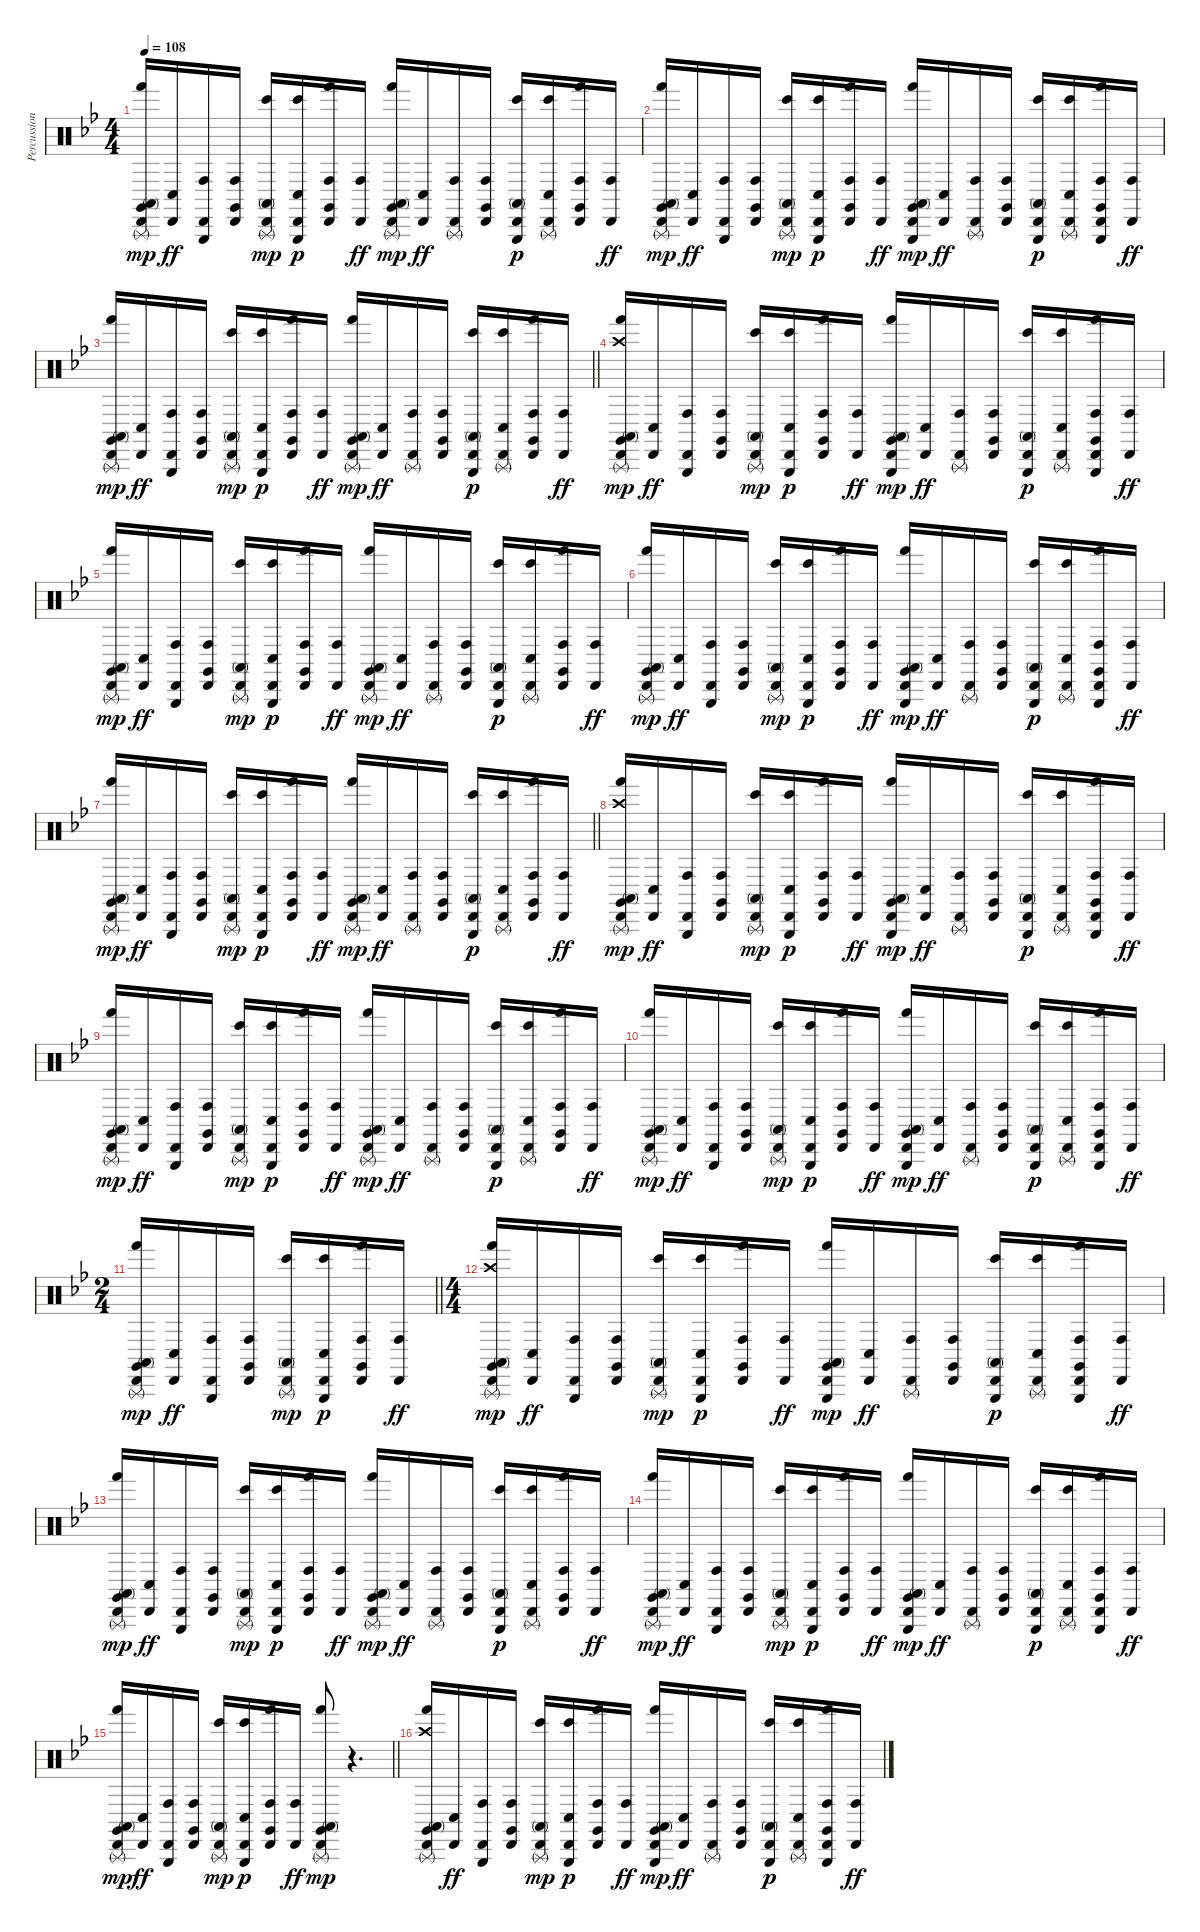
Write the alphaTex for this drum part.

\track ("Percussion" "Percussion") {instrument percussion}
\staff {score}
\articulation defaults
\ts (4 4)
\tempo 108
\clef neutral
\ks gminor
("Cabasa (hit)" "Triangle (rnute)" "Claves (hit)" "Conga high (mute)" "Hand (hit)").16{dy mp} ("Cabasa (hit)" "Conga low (hit)").16{dy ff} ("Cabasa (hit)" "Triangle (hit)" "Conga high (hit)").16 ("Cabasa (hit)" "Claves (hit)" "Conga high (hit)").16 ("Cabasa (hit)" "Triangle (rnute)" "Conga high (mute)" "Bongo High (hit)").16{dy mp} ("Cabasa (hit)" "Triangle (hit)" "Conga low (hit)" "Bongo High (hit)").16{dy p} ("Cabasa (hit)" "Claves (hit)" "Conga high (hit)" "Hand (hit)").16 ("Cabasa (hit)" "Conga high (hit)").16{dy ff} ("Cabasa (hit)" "Triangle (rnute)" "Claves (hit)" "Conga high (mute)" "Hand (hit)").16{dy mp} ("Cabasa (hit)" "Conga low (hit)").16{dy ff} ("Cabasa (hit)" "Triangle (rnute)" "Conga high (hit)").16 ("Cabasa (hit)" "Claves (hit)" "Conga high (hit)").16 ("Cabasa (hit)" "Triangle (hit)" "Conga high (mute)" "Bongo High (hit)").16{dy p} ("Cabasa (hit)" "Triangle (rnute)" "Conga low (hit)" "Bongo High (hit)").16 ("Cabasa (hit)" "Claves (hit)" "Conga high (hit)" "Hand (hit)").16 ("Cabasa (hit)" "Conga high (hit)").16{dy ff} |
("Cabasa (hit)" "Claves (hit)" "Triangle (rnute)" "Conga high (mute)" "Hand (hit)").16{dy mp} ("Cabasa (hit)" "Conga low (hit)").16{dy ff} ("Cabasa (hit)" "Triangle (hit)" "Conga high (hit)").16 ("Cabasa (hit)" "Claves (hit)" "Conga high (hit)").16 ("Cabasa (hit)" "Triangle (rnute)" "Conga high (mute)" "Bongo High (hit)").16{dy mp} ("Cabasa (hit)" "Triangle (hit)" "Conga low (hit)" "Bongo High (hit)").16{dy p} ("Cabasa (hit)" "Claves (hit)" "Conga high (hit)" "Hand (hit)").16 ("Cabasa (hit)" "Conga high (hit)").16{dy ff} ("Cabasa (hit)" "Claves (hit)" "Triangle (hit)" "Conga high (mute)" "Hand (hit)").16{dy mp} ("Cabasa (hit)" "Conga low (hit)").16{dy ff} ("Cabasa (hit)" "Triangle (rnute)" "Conga high (hit)").16 ("Cabasa (hit)" "Claves (hit)" "Conga high (hit)").16 ("Cabasa (hit)" "Triangle (hit)" "Conga high (mute)" "Bongo High (hit)").16{dy p} ("Cabasa (hit)" "Triangle (rnute)" "Conga low (hit)" "Bongo High (hit)").16 ("Cabasa (hit)" "Claves (hit)" "Triangle (hit)" "Conga high (hit)" "Hand (hit)").16 ("Cabasa (hit)" "Conga high (hit)").16{dy ff} |
\barLineRight lightlight
("Cabasa (hit)" "Triangle (rnute)" "Claves (hit)" "Conga high (mute)" "Hand (hit)").16{dy mp} ("Cabasa (hit)" "Conga low (hit)").16{dy ff} ("Cabasa (hit)" "Triangle (hit)" "Conga high (hit)").16 ("Cabasa (hit)" "Claves (hit)" "Conga high (hit)").16 ("Cabasa (hit)" "Triangle (rnute)" "Conga high (mute)" "Bongo High (hit)").16{dy mp} ("Cabasa (hit)" "Triangle (hit)" "Conga low (hit)" "Bongo High (hit)").16{dy p} ("Cabasa (hit)" "Claves (hit)" "Conga high (hit)" "Hand (hit)").16 ("Cabasa (hit)" "Conga high (hit)").16{dy ff} ("Cabasa (hit)" "Triangle (rnute)" "Claves (hit)" "Conga high (mute)" "Hand (hit)").16{dy mp} ("Cabasa (hit)" "Conga low (hit)").16{dy ff} ("Cabasa (hit)" "Triangle (rnute)" "Conga high (hit)").16 ("Cabasa (hit)" "Claves (hit)" "Conga high (hit)").16 ("Cabasa (hit)" "Triangle (hit)" "Conga high (mute)" "Bongo High (hit)").16{dy p} ("Cabasa (hit)" "Triangle (rnute)" "Conga low (hit)" "Bongo High (hit)").16 ("Cabasa (hit)" "Claves (hit)" "Conga high (hit)" "Hand (hit)").16 ("Cabasa (hit)" "Conga high (hit)").16{dy ff} |
\section ("" "")
("Crash high (hit)" "Cabasa (hit)" "Claves (hit)" "Triangle (rnute)" "Conga high (mute)" "Hand (hit)").16{dy mp} ("Cabasa (hit)" "Conga low (hit)").16{dy ff} ("Cabasa (hit)" "Triangle (hit)" "Conga high (hit)").16 ("Cabasa (hit)" "Claves (hit)" "Conga high (hit)").16 ("Cabasa (hit)" "Triangle (rnute)" "Conga high (mute)" "Bongo High (hit)").16{dy mp} ("Cabasa (hit)" "Triangle (hit)" "Conga low (hit)" "Bongo High (hit)").16{dy p} ("Cabasa (hit)" "Claves (hit)" "Conga high (hit)" "Hand (hit)").16 ("Cabasa (hit)" "Conga high (hit)").16{dy ff} ("Cabasa (hit)" "Claves (hit)" "Triangle (hit)" "Conga high (mute)" "Hand (hit)").16{dy mp} ("Cabasa (hit)" "Conga low (hit)").16{dy ff} ("Cabasa (hit)" "Triangle (rnute)" "Conga high (hit)").16 ("Cabasa (hit)" "Claves (hit)" "Conga high (hit)").16 ("Cabasa (hit)" "Triangle (hit)" "Conga high (mute)" "Bongo High (hit)").16{dy p} ("Cabasa (hit)" "Triangle (rnute)" "Conga low (hit)" "Bongo High (hit)").16 ("Cabasa (hit)" "Claves (hit)" "Triangle (hit)" "Conga high (hit)" "Hand (hit)").16 ("Cabasa (hit)" "Conga high (hit)").16{dy ff} |
("Cabasa (hit)" "Triangle (rnute)" "Claves (hit)" "Conga high (mute)" "Hand (hit)").16{dy mp} ("Cabasa (hit)" "Conga low (hit)").16{dy ff} ("Cabasa (hit)" "Triangle (hit)" "Conga high (hit)").16 ("Cabasa (hit)" "Claves (hit)" "Conga high (hit)").16 ("Cabasa (hit)" "Triangle (rnute)" "Conga high (mute)" "Bongo High (hit)").16{dy mp} ("Cabasa (hit)" "Triangle (hit)" "Conga low (hit)" "Bongo High (hit)").16{dy p} ("Cabasa (hit)" "Claves (hit)" "Conga high (hit)" "Hand (hit)").16 ("Cabasa (hit)" "Conga high (hit)").16{dy ff} ("Cabasa (hit)" "Triangle (rnute)" "Claves (hit)" "Conga high (mute)" "Hand (hit)").16{dy mp} ("Cabasa (hit)" "Conga low (hit)").16{dy ff} ("Cabasa (hit)" "Triangle (rnute)" "Conga high (hit)").16 ("Cabasa (hit)" "Claves (hit)" "Conga high (hit)").16 ("Cabasa (hit)" "Triangle (hit)" "Conga high (mute)" "Bongo High (hit)").16{dy p} ("Cabasa (hit)" "Triangle (rnute)" "Conga low (hit)" "Bongo High (hit)").16 ("Cabasa (hit)" "Claves (hit)" "Conga high (hit)" "Hand (hit)").16 ("Cabasa (hit)" "Conga high (hit)").16{dy ff} |
("Cabasa (hit)" "Claves (hit)" "Triangle (rnute)" "Conga high (mute)" "Hand (hit)").16{dy mp} ("Cabasa (hit)" "Conga low (hit)").16{dy ff} ("Cabasa (hit)" "Triangle (hit)" "Conga high (hit)").16 ("Cabasa (hit)" "Claves (hit)" "Conga high (hit)").16 ("Cabasa (hit)" "Triangle (rnute)" "Conga high (mute)" "Bongo High (hit)").16{dy mp} ("Cabasa (hit)" "Triangle (hit)" "Conga low (hit)" "Bongo High (hit)").16{dy p} ("Cabasa (hit)" "Claves (hit)" "Conga high (hit)" "Hand (hit)").16 ("Cabasa (hit)" "Conga high (hit)").16{dy ff} ("Cabasa (hit)" "Claves (hit)" "Triangle (hit)" "Conga high (mute)" "Hand (hit)").16{dy mp} ("Cabasa (hit)" "Conga low (hit)").16{dy ff} ("Cabasa (hit)" "Triangle (rnute)" "Conga high (hit)").16 ("Cabasa (hit)" "Claves (hit)" "Conga high (hit)").16 ("Cabasa (hit)" "Triangle (hit)" "Conga high (mute)" "Bongo High (hit)").16{dy p} ("Cabasa (hit)" "Triangle (rnute)" "Conga low (hit)" "Bongo High (hit)").16 ("Cabasa (hit)" "Claves (hit)" "Triangle (hit)" "Conga high (hit)" "Hand (hit)").16 ("Cabasa (hit)" "Conga high (hit)").16{dy ff} |
\barLineRight lightlight
("Cabasa (hit)" "Triangle (rnute)" "Claves (hit)" "Conga high (mute)" "Hand (hit)").16{dy mp} ("Cabasa (hit)" "Conga low (hit)").16{dy ff} ("Cabasa (hit)" "Triangle (hit)" "Conga high (hit)").16 ("Cabasa (hit)" "Claves (hit)" "Conga high (hit)").16 ("Cabasa (hit)" "Triangle (rnute)" "Conga high (mute)" "Bongo High (hit)").16{dy mp} ("Cabasa (hit)" "Triangle (hit)" "Conga low (hit)" "Bongo High (hit)").16{dy p} ("Cabasa (hit)" "Claves (hit)" "Conga high (hit)" "Hand (hit)").16 ("Cabasa (hit)" "Conga high (hit)").16{dy ff} ("Cabasa (hit)" "Triangle (rnute)" "Claves (hit)" "Conga high (mute)" "Hand (hit)").16{dy mp} ("Cabasa (hit)" "Conga low (hit)").16{dy ff} ("Cabasa (hit)" "Triangle (rnute)" "Conga high (hit)").16 ("Cabasa (hit)" "Claves (hit)" "Conga high (hit)").16 ("Cabasa (hit)" "Triangle (hit)" "Conga high (mute)" "Bongo High (hit)").16{dy p} ("Cabasa (hit)" "Triangle (rnute)" "Conga low (hit)" "Bongo High (hit)").16 ("Cabasa (hit)" "Claves (hit)" "Conga high (hit)" "Hand (hit)").16 ("Cabasa (hit)" "Conga high (hit)").16{dy ff} |
("Crash high (hit)" "Cabasa (hit)" "Claves (hit)" "Triangle (rnute)" "Conga high (mute)" "Hand (hit)").16{dy mp} ("Cabasa (hit)" "Conga low (hit)").16{dy ff} ("Cabasa (hit)" "Triangle (hit)" "Conga high (hit)").16 ("Cabasa (hit)" "Claves (hit)" "Conga high (hit)").16 ("Cabasa (hit)" "Triangle (rnute)" "Conga high (mute)" "Bongo High (hit)").16{dy mp} ("Cabasa (hit)" "Triangle (hit)" "Conga low (hit)" "Bongo High (hit)").16{dy p} ("Cabasa (hit)" "Claves (hit)" "Conga high (hit)" "Hand (hit)").16 ("Cabasa (hit)" "Conga high (hit)").16{dy ff} ("Cabasa (hit)" "Claves (hit)" "Triangle (hit)" "Conga high (mute)" "Hand (hit)").16{dy mp} ("Cabasa (hit)" "Conga low (hit)").16{dy ff} ("Cabasa (hit)" "Triangle (rnute)" "Conga high (hit)").16 ("Cabasa (hit)" "Claves (hit)" "Conga high (hit)").16 ("Cabasa (hit)" "Triangle (hit)" "Conga high (mute)" "Bongo High (hit)").16{dy p} ("Cabasa (hit)" "Triangle (rnute)" "Conga low (hit)" "Bongo High (hit)").16 ("Cabasa (hit)" "Claves (hit)" "Triangle (hit)" "Conga high (hit)" "Hand (hit)").16 ("Cabasa (hit)" "Conga high (hit)").16{dy ff} |
("Cabasa (hit)" "Triangle (rnute)" "Claves (hit)" "Conga high (mute)" "Hand (hit)").16{dy mp} ("Cabasa (hit)" "Conga low (hit)").16{dy ff} ("Cabasa (hit)" "Triangle (hit)" "Conga high (hit)").16 ("Cabasa (hit)" "Claves (hit)" "Conga high (hit)").16 ("Cabasa (hit)" "Triangle (rnute)" "Conga high (mute)" "Bongo High (hit)").16{dy mp} ("Cabasa (hit)" "Triangle (hit)" "Conga low (hit)" "Bongo High (hit)").16{dy p} ("Cabasa (hit)" "Claves (hit)" "Conga high (hit)" "Hand (hit)").16 ("Cabasa (hit)" "Conga high (hit)").16{dy ff} ("Cabasa (hit)" "Triangle (rnute)" "Claves (hit)" "Conga high (mute)" "Hand (hit)").16{dy mp} ("Cabasa (hit)" "Conga low (hit)").16{dy ff} ("Cabasa (hit)" "Triangle (rnute)" "Conga high (hit)").16 ("Cabasa (hit)" "Claves (hit)" "Conga high (hit)").16 ("Cabasa (hit)" "Triangle (hit)" "Conga high (mute)" "Bongo High (hit)").16{dy p} ("Cabasa (hit)" "Triangle (rnute)" "Conga low (hit)" "Bongo High (hit)").16 ("Cabasa (hit)" "Claves (hit)" "Conga high (hit)" "Hand (hit)").16 ("Cabasa (hit)" "Conga high (hit)").16{dy ff} |
("Cabasa (hit)" "Claves (hit)" "Triangle (rnute)" "Conga high (mute)" "Hand (hit)").16{dy mp} ("Cabasa (hit)" "Conga low (hit)").16{dy ff} ("Cabasa (hit)" "Triangle (hit)" "Conga high (hit)").16 ("Cabasa (hit)" "Claves (hit)" "Conga high (hit)").16 ("Cabasa (hit)" "Triangle (rnute)" "Conga high (mute)" "Bongo High (hit)").16{dy mp} ("Cabasa (hit)" "Triangle (hit)" "Conga low (hit)" "Bongo High (hit)").16{dy p} ("Cabasa (hit)" "Claves (hit)" "Conga high (hit)" "Hand (hit)").16 ("Cabasa (hit)" "Conga high (hit)").16{dy ff} ("Cabasa (hit)" "Claves (hit)" "Triangle (hit)" "Conga high (mute)" "Hand (hit)").16{dy mp} ("Cabasa (hit)" "Conga low (hit)").16{dy ff} ("Cabasa (hit)" "Triangle (rnute)" "Conga high (hit)").16 ("Cabasa (hit)" "Claves (hit)" "Conga high (hit)").16 ("Cabasa (hit)" "Triangle (hit)" "Conga high (mute)" "Bongo High (hit)").16{dy p} ("Cabasa (hit)" "Triangle (rnute)" "Conga low (hit)" "Bongo High (hit)").16 ("Cabasa (hit)" "Claves (hit)" "Triangle (hit)" "Conga high (hit)" "Hand (hit)").16 ("Cabasa (hit)" "Conga high (hit)").16{dy ff} |
\ts (2 4)
\barLineRight lightlight
("Cabasa (hit)" "Triangle (rnute)" "Claves (hit)" "Conga high (mute)" "Hand (hit)").16{dy mp} ("Cabasa (hit)" "Conga low (hit)").16{dy ff} ("Cabasa (hit)" "Triangle (hit)" "Conga high (hit)").16 ("Cabasa (hit)" "Claves (hit)" "Conga high (hit)").16 ("Cabasa (hit)" "Triangle (rnute)" "Conga high (mute)" "Bongo High (hit)").16{dy mp} ("Cabasa (hit)" "Triangle (hit)" "Conga low (hit)" "Bongo High (hit)").16{dy p} ("Cabasa (hit)" "Claves (hit)" "Conga high (hit)" "Hand (hit)").16 ("Cabasa (hit)" "Conga high (hit)").16{dy ff} |
\ts (4 4)
\section ("" "")
("Crash high (hit)" "Cabasa (hit)" "Claves (hit)" "Triangle (rnute)" "Conga high (mute)" "Hand (hit)").16{dy mp} ("Cabasa (hit)" "Conga low (hit)").16{dy ff} ("Cabasa (hit)" "Triangle (hit)" "Conga high (hit)").16 ("Cabasa (hit)" "Claves (hit)" "Conga high (hit)").16 ("Cabasa (hit)" "Triangle (rnute)" "Conga high (mute)" "Bongo High (hit)").16{dy mp} ("Cabasa (hit)" "Triangle (hit)" "Conga low (hit)" "Bongo High (hit)").16{dy p} ("Cabasa (hit)" "Claves (hit)" "Conga high (hit)" "Hand (hit)").16 ("Cabasa (hit)" "Conga high (hit)").16{dy ff} ("Cabasa (hit)" "Claves (hit)" "Triangle (hit)" "Conga high (mute)" "Hand (hit)").16{dy mp} ("Cabasa (hit)" "Conga low (hit)").16{dy ff} ("Cabasa (hit)" "Triangle (rnute)" "Conga high (hit)").16 ("Cabasa (hit)" "Claves (hit)" "Conga high (hit)").16 ("Cabasa (hit)" "Triangle (hit)" "Conga high (mute)" "Bongo High (hit)").16{dy p} ("Cabasa (hit)" "Triangle (rnute)" "Conga low (hit)" "Bongo High (hit)").16 ("Cabasa (hit)" "Claves (hit)" "Triangle (hit)" "Conga high (hit)" "Hand (hit)").16 ("Cabasa (hit)" "Conga high (hit)").16{dy ff} |
("Cabasa (hit)" "Triangle (rnute)" "Claves (hit)" "Conga high (mute)" "Hand (hit)").16{dy mp} ("Cabasa (hit)" "Conga low (hit)").16{dy ff} ("Cabasa (hit)" "Triangle (hit)" "Conga high (hit)").16 ("Cabasa (hit)" "Claves (hit)" "Conga high (hit)").16 ("Cabasa (hit)" "Triangle (rnute)" "Conga high (mute)" "Bongo High (hit)").16{dy mp} ("Cabasa (hit)" "Triangle (hit)" "Conga low (hit)" "Bongo High (hit)").16{dy p} ("Cabasa (hit)" "Claves (hit)" "Conga high (hit)" "Hand (hit)").16 ("Cabasa (hit)" "Conga high (hit)").16{dy ff} ("Cabasa (hit)" "Triangle (rnute)" "Claves (hit)" "Conga high (mute)" "Hand (hit)").16{dy mp} ("Cabasa (hit)" "Conga low (hit)").16{dy ff} ("Cabasa (hit)" "Triangle (rnute)" "Conga high (hit)").16 ("Cabasa (hit)" "Claves (hit)" "Conga high (hit)").16 ("Cabasa (hit)" "Triangle (hit)" "Conga high (mute)" "Bongo High (hit)").16{dy p} ("Cabasa (hit)" "Triangle (rnute)" "Conga low (hit)" "Bongo High (hit)").16 ("Cabasa (hit)" "Claves (hit)" "Conga high (hit)" "Hand (hit)").16 ("Cabasa (hit)" "Conga high (hit)").16{dy ff} |
("Cabasa (hit)" "Claves (hit)" "Triangle (rnute)" "Conga high (mute)" "Hand (hit)").16{dy mp} ("Cabasa (hit)" "Conga low (hit)").16{dy ff} ("Cabasa (hit)" "Triangle (hit)" "Conga high (hit)").16 ("Cabasa (hit)" "Claves (hit)" "Conga high (hit)").16 ("Cabasa (hit)" "Triangle (rnute)" "Conga high (mute)" "Bongo High (hit)").16{dy mp} ("Cabasa (hit)" "Triangle (hit)" "Conga low (hit)" "Bongo High (hit)").16{dy p} ("Cabasa (hit)" "Claves (hit)" "Conga high (hit)" "Hand (hit)").16 ("Cabasa (hit)" "Conga high (hit)").16{dy ff} ("Cabasa (hit)" "Claves (hit)" "Triangle (hit)" "Conga high (mute)" "Hand (hit)").16{dy mp} ("Cabasa (hit)" "Conga low (hit)").16{dy ff} ("Cabasa (hit)" "Triangle (rnute)" "Conga high (hit)").16 ("Cabasa (hit)" "Claves (hit)" "Conga high (hit)").16 ("Cabasa (hit)" "Triangle (hit)" "Conga high (mute)" "Bongo High (hit)").16{dy p} ("Cabasa (hit)" "Triangle (rnute)" "Conga low (hit)" "Bongo High (hit)").16 ("Cabasa (hit)" "Claves (hit)" "Triangle (hit)" "Conga high (hit)" "Hand (hit)").16 ("Cabasa (hit)" "Conga high (hit)").16{dy ff} |
\barLineRight lightlight
("Cabasa (hit)" "Triangle (rnute)" "Claves (hit)" "Conga high (mute)" "Hand (hit)").16{dy mp} ("Cabasa (hit)" "Conga low (hit)").16{dy ff} ("Cabasa (hit)" "Triangle (hit)" "Conga high (hit)").16 ("Cabasa (hit)" "Claves (hit)" "Conga high (hit)").16 ("Cabasa (hit)" "Triangle (rnute)" "Conga high (mute)" "Bongo High (hit)").16{dy mp} ("Cabasa (hit)" "Triangle (hit)" "Conga low (hit)" "Bongo High (hit)").16{dy p} ("Cabasa (hit)" "Claves (hit)" "Conga high (hit)" "Hand (hit)").16 ("Cabasa (hit)" "Conga high (hit)").16{dy ff} ("Cabasa (hit)" "Triangle (rnute)" "Claves (hit)" "Conga high (mute)" "Hand (hit)").8{dy mp} r.4{d} |
\section ("" "")
("Crash high (hit)" "Cabasa (hit)" "Claves (hit)" "Triangle (rnute)" "Conga high (mute)" "Hand (hit)").16 ("Cabasa (hit)" "Conga low (hit)").16{dy ff} ("Cabasa (hit)" "Triangle (hit)" "Conga high (hit)").16 ("Cabasa (hit)" "Claves (hit)" "Conga high (hit)").16 ("Cabasa (hit)" "Triangle (rnute)" "Conga high (mute)" "Bongo High (hit)").16{dy mp} ("Cabasa (hit)" "Triangle (hit)" "Conga low (hit)" "Bongo High (hit)").16{dy p} ("Cabasa (hit)" "Claves (hit)" "Conga high (hit)" "Hand (hit)").16 ("Cabasa (hit)" "Conga high (hit)").16{dy ff} ("Cabasa (hit)" "Claves (hit)" "Triangle (hit)" "Conga high (mute)" "Hand (hit)").16{dy mp} ("Cabasa (hit)" "Conga low (hit)").16{dy ff} ("Cabasa (hit)" "Triangle (rnute)" "Conga high (hit)").16 ("Cabasa (hit)" "Claves (hit)" "Conga high (hit)").16 ("Cabasa (hit)" "Triangle (hit)" "Conga high (mute)" "Bongo High (hit)").16{dy p} ("Cabasa (hit)" "Triangle (rnute)" "Conga low (hit)" "Bongo High (hit)").16 ("Cabasa (hit)" "Claves (hit)" "Triangle (hit)" "Conga high (hit)" "Hand (hit)").16 ("Cabasa (hit)" "Conga high (hit)").16{dy ff}
